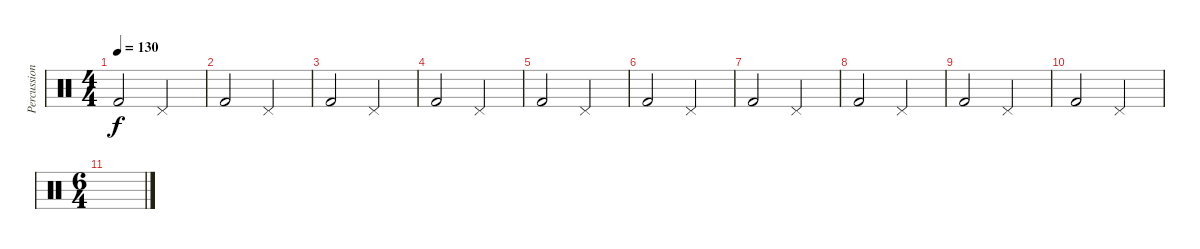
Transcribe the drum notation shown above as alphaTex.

\track ("Percussion" "Percussion") {instrument percussion}
\staff {score}
\articulation defaults
\ts (4 4)
\tempo 130
\clef neutral
\ks c "Kick (hit) 2".2{dy f} "Pedal Hi-Hat (hit)".2
|
"Kick (hit) 2".2 "Pedal Hi-Hat (hit)".2 |
"Kick (hit) 2".2 "Pedal Hi-Hat (hit)".2 |
"Kick (hit) 2".2 "Pedal Hi-Hat (hit)".2 |
"Kick (hit) 2".2 "Pedal Hi-Hat (hit)".2 |
"Kick (hit) 2".2 "Pedal Hi-Hat (hit)".2 |
"Kick (hit) 2".2 "Pedal Hi-Hat (hit)".2 |
"Kick (hit) 2".2 "Pedal Hi-Hat (hit)".2 |
"Kick (hit) 2".2 "Pedal Hi-Hat (hit)".2 |
"Kick (hit) 2".2 "Pedal Hi-Hat (hit)".2 |
\ts (6 4)
